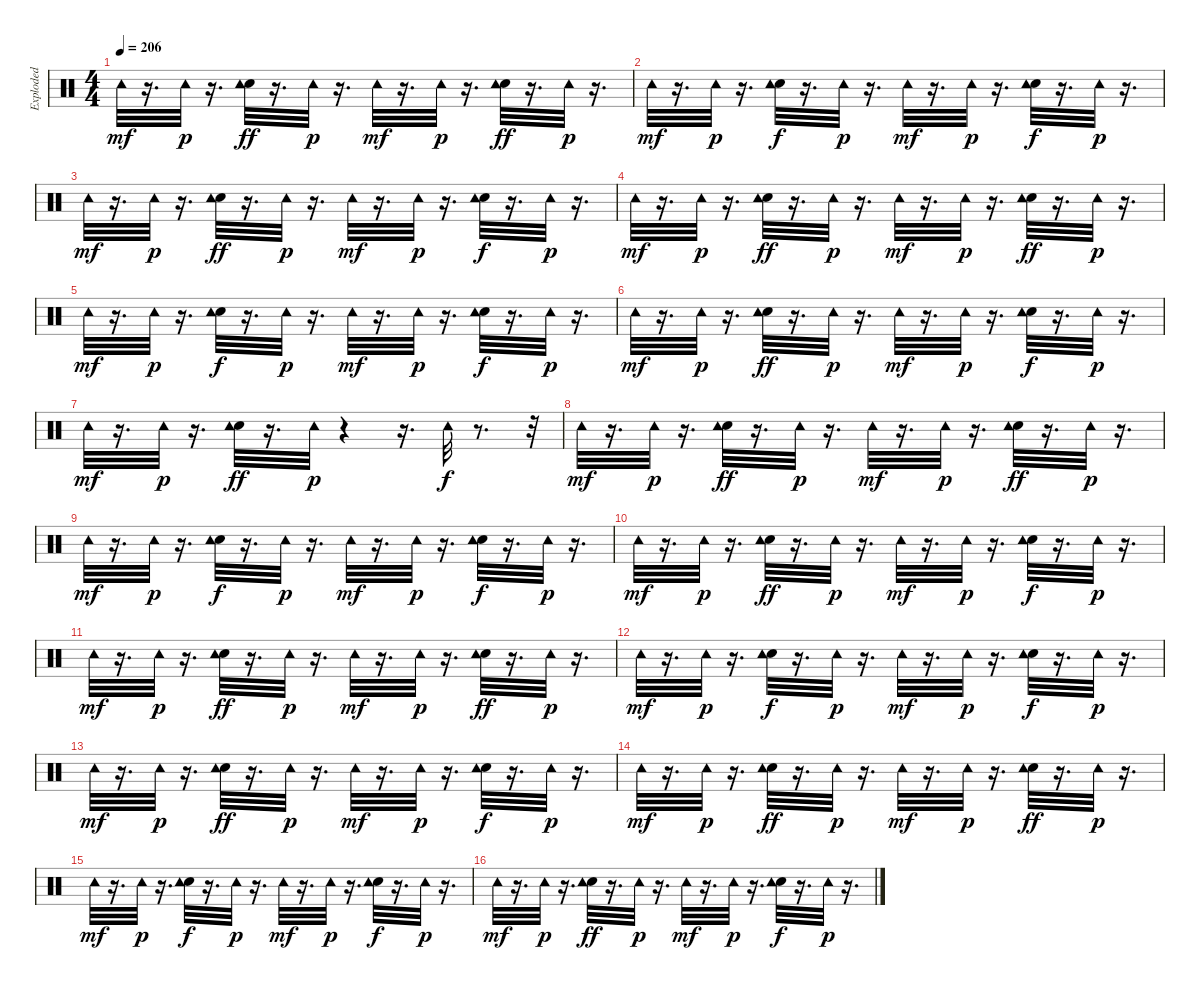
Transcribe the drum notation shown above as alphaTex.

\track ("Exploded" "Exploded") {instrument percussion}
\staff {score}
\articulation defaults
\ts (4 4)
\tempo 206
\clef neutral
\ks c "Tambourine (hit)".32{dy mf}
r.16{d} "Tambourine (hit)".32{dy p} r.16{d} ("Hand Clap (hit)" "Tambourine (hit)").32{dy ff} r.16{d} "Tambourine (hit)".32{dy p} r.16{d} "Tambourine (hit)".32{dy mf} r.16{d} "Tambourine (hit)".32{dy p} r.16{d} ("Hand Clap (hit)" "Tambourine (hit)").32{dy ff} r.16{d} "Tambourine (hit)".32{dy p} r.16{d} |
"Tambourine (hit)".32{dy mf} r.16{d} "Tambourine (hit)".32{dy p} r.16{d} ("Hand Clap (hit)" "Tambourine (hit)").32{dy f} r.16{d} "Tambourine (hit)".32{dy p} r.16{d} "Tambourine (hit)".32{dy mf} r.16{d} "Tambourine (hit)".32{dy p} r.16{d} ("Hand Clap (hit)" "Tambourine (hit)").32{dy f} r.16{d} "Tambourine (hit)".32{dy p} r.16{d} |
"Tambourine (hit)".32{dy mf} r.16{d} "Tambourine (hit)".32{dy p} r.16{d} ("Hand Clap (hit)" "Tambourine (hit)").32{dy ff} r.16{d} "Tambourine (hit)".32{dy p} r.16{d} "Tambourine (hit)".32{dy mf} r.16{d} "Tambourine (hit)".32{dy p} r.16{d} ("Hand Clap (hit)" "Tambourine (hit)").32{dy f} r.16{d} "Tambourine (hit)".32{dy p} r.16{d} |
"Tambourine (hit)".32{dy mf} r.16{d} "Tambourine (hit)".32{dy p} r.16{d} ("Hand Clap (hit)" "Tambourine (hit)").32{dy ff} r.16{d} "Tambourine (hit)".32{dy p} r.16{d} "Tambourine (hit)".32{dy mf} r.16{d} "Tambourine (hit)".32{dy p} r.16{d} ("Hand Clap (hit)" "Tambourine (hit)").32{dy ff} r.16{d} "Tambourine (hit)".32{dy p} r.16{d} |
"Tambourine (hit)".32{dy mf} r.16{d} "Tambourine (hit)".32{dy p} r.16{d} ("Hand Clap (hit)" "Tambourine (hit)").32{dy f} r.16{d} "Tambourine (hit)".32{dy p} r.16{d} "Tambourine (hit)".32{dy mf} r.16{d} "Tambourine (hit)".32{dy p} r.16{d} ("Hand Clap (hit)" "Tambourine (hit)").32{dy f} r.16{d} "Tambourine (hit)".32{dy p} r.16{d} |
"Tambourine (hit)".32{dy mf} r.16{d} "Tambourine (hit)".32{dy p} r.16{d} ("Hand Clap (hit)" "Tambourine (hit)").32{dy ff} r.16{d} "Tambourine (hit)".32{dy p} r.16{d} "Tambourine (hit)".32{dy mf} r.16{d} "Tambourine (hit)".32{dy p} r.16{d} ("Hand Clap (hit)" "Tambourine (hit)").32{dy f} r.16{d} "Tambourine (hit)".32{dy p} r.16{d} |
"Tambourine (hit)".32{dy mf} r.16{d} "Tambourine (hit)".32{dy p} r.16{d} ("Hand Clap (hit)" "Tambourine (hit)").32{dy ff} r.16{d} "Tambourine (hit)".32{dy p} r.4 r.16{d} "Tambourine (hit)".32{dy f} r.8{d} r.32 |
"Tambourine (hit)".32{dy mf} r.16{d} "Tambourine (hit)".32{dy p} r.16{d} ("Hand Clap (hit)" "Tambourine (hit)").32{dy ff} r.16{d} "Tambourine (hit)".32{dy p} r.16{d} "Tambourine (hit)".32{dy mf} r.16{d} "Tambourine (hit)".32{dy p} r.16{d} ("Hand Clap (hit)" "Tambourine (hit)").32{dy ff} r.16{d} "Tambourine (hit)".32{dy p} r.16{d} |
"Tambourine (hit)".32{dy mf} r.16{d} "Tambourine (hit)".32{dy p} r.16{d} ("Hand Clap (hit)" "Tambourine (hit)").32{dy f} r.16{d} "Tambourine (hit)".32{dy p} r.16{d} "Tambourine (hit)".32{dy mf} r.16{d} "Tambourine (hit)".32{dy p} r.16{d} ("Hand Clap (hit)" "Tambourine (hit)").32{dy f} r.16{d} "Tambourine (hit)".32{dy p} r.16{d} |
"Tambourine (hit)".32{dy mf} r.16{d} "Tambourine (hit)".32{dy p} r.16{d} ("Hand Clap (hit)" "Tambourine (hit)").32{dy ff} r.16{d} "Tambourine (hit)".32{dy p} r.16{d} "Tambourine (hit)".32{dy mf} r.16{d} "Tambourine (hit)".32{dy p} r.16{d} ("Hand Clap (hit)" "Tambourine (hit)").32{dy f} r.16{d} "Tambourine (hit)".32{dy p} r.16{d} |
"Tambourine (hit)".32{dy mf} r.16{d} "Tambourine (hit)".32{dy p} r.16{d} ("Hand Clap (hit)" "Tambourine (hit)").32{dy ff} r.16{d} "Tambourine (hit)".32{dy p} r.16{d} "Tambourine (hit)".32{dy mf} r.16{d} "Tambourine (hit)".32{dy p} r.16{d} ("Hand Clap (hit)" "Tambourine (hit)").32{dy ff} r.16{d} "Tambourine (hit)".32{dy p} r.16{d} |
"Tambourine (hit)".32{dy mf} r.16{d} "Tambourine (hit)".32{dy p} r.16{d} ("Hand Clap (hit)" "Tambourine (hit)").32{dy f} r.16{d} "Tambourine (hit)".32{dy p} r.16{d} "Tambourine (hit)".32{dy mf} r.16{d} "Tambourine (hit)".32{dy p} r.16{d} ("Hand Clap (hit)" "Tambourine (hit)").32{dy f} r.16{d} "Tambourine (hit)".32{dy p} r.16{d} |
"Tambourine (hit)".32{dy mf} r.16{d} "Tambourine (hit)".32{dy p} r.16{d} ("Hand Clap (hit)" "Tambourine (hit)").32{dy ff} r.16{d} "Tambourine (hit)".32{dy p} r.16{d} "Tambourine (hit)".32{dy mf} r.16{d} "Tambourine (hit)".32{dy p} r.16{d} ("Hand Clap (hit)" "Tambourine (hit)").32{dy f} r.16{d} "Tambourine (hit)".32{dy p} r.16{d} |
"Tambourine (hit)".32{dy mf} r.16{d} "Tambourine (hit)".32{dy p} r.16{d} ("Hand Clap (hit)" "Tambourine (hit)").32{dy ff} r.16{d} "Tambourine (hit)".32{dy p} r.16{d} "Tambourine (hit)".32{dy mf} r.16{d} "Tambourine (hit)".32{dy p} r.16{d} ("Hand Clap (hit)" "Tambourine (hit)").32{dy ff} r.16{d} "Tambourine (hit)".32{dy p} r.16{d} |
"Tambourine (hit)".32{dy mf} r.16{d} "Tambourine (hit)".32{dy p} r.16{d} ("Hand Clap (hit)" "Tambourine (hit)").32{dy f} r.16{d} "Tambourine (hit)".32{dy p} r.16{d} "Tambourine (hit)".32{dy mf} r.16{d} "Tambourine (hit)".32{dy p} r.16{d} ("Hand Clap (hit)" "Tambourine (hit)").32{dy f} r.16{d} "Tambourine (hit)".32{dy p} r.16{d} |
"Tambourine (hit)".32{dy mf} r.16{d} "Tambourine (hit)".32{dy p} r.16{d} ("Hand Clap (hit)" "Tambourine (hit)").32{dy ff} r.16{d} "Tambourine (hit)".32{dy p} r.16{d} "Tambourine (hit)".32{dy mf} r.16{d} "Tambourine (hit)".32{dy p} r.16{d} ("Hand Clap (hit)" "Tambourine (hit)").32{dy f} r.16{d} "Tambourine (hit)".32{dy p} r.16{d}
